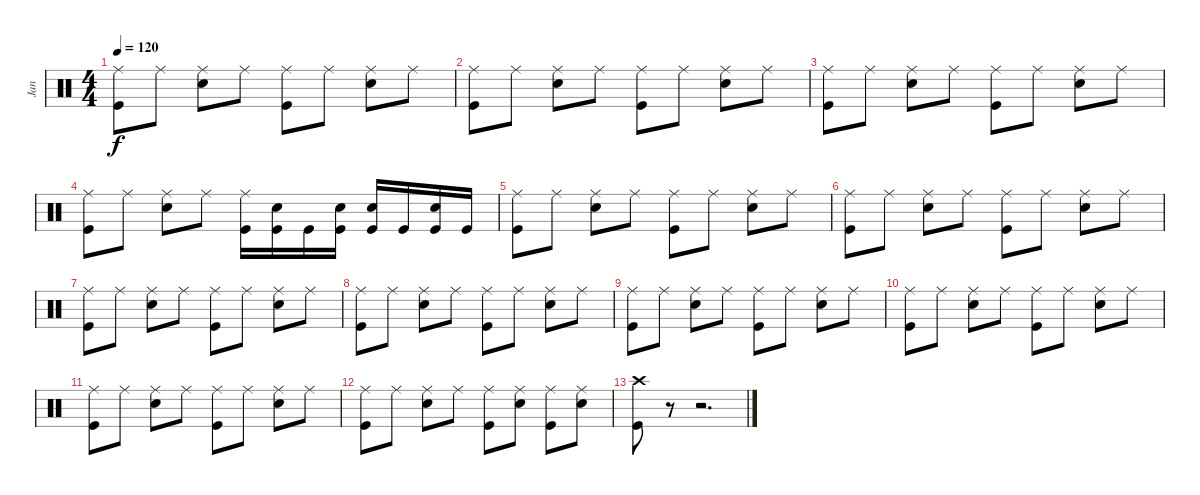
\track ("Jan" "Jan") {instrument percussion}
\staff {score}
\articulation defaults
\ts (4 4)
\tempo 120
\clef neutral
\ks c
("Ride (middle)" "Kick (hit)").8{dy f} "Ride (middle)".8 ("Ride (middle)" "Snare (hit) 2").8 "Ride (middle)".8 ("Ride (middle)" "Kick (hit)").8 "Ride (middle)".8 ("Ride (middle)" "Snare (hit) 2").8 "Ride (middle)".8 |
("Ride (middle)" "Kick (hit)").8 "Ride (middle)".8 ("Ride (middle)" "Snare (hit) 2").8 "Ride (middle)".8 ("Ride (middle)" "Kick (hit)").8 "Ride (middle)".8 ("Ride (middle)" "Snare (hit) 2").8 "Ride (middle)".8 |
("Ride (middle)" "Kick (hit)").8 "Ride (middle)".8 ("Ride (middle)" "Snare (hit) 2").8 "Ride (middle)".8 ("Ride (middle)" "Kick (hit)").8 "Ride (middle)".8 ("Ride (middle)" "Snare (hit) 2").8 "Ride (middle)".8 |
("Ride (middle)" "Kick (hit)").8 "Ride (middle)".8 ("Ride (middle)" "Snare (hit) 2").8 "Ride (middle)".8 ("Ride (middle)" "Kick (hit)").16 ("Snare (hit) 2" "Kick (hit)").16 "Kick (hit)".16 ("Snare (hit) 2" "Kick (hit)").16 ("Snare (hit) 2" "Kick (hit)").16 "Kick (hit)".16 ("Snare (hit) 2" "Kick (hit)").16 "Kick (hit)".16 |
("Ride (middle)" "Kick (hit)").8 "Ride (middle)".8 ("Ride (middle)" "Snare (hit) 2").8 "Ride (middle)".8 ("Ride (middle)" "Kick (hit)").8 "Ride (middle)".8 ("Ride (middle)" "Snare (hit) 2").8 "Ride (middle)".8 |
("Ride (middle)" "Kick (hit)").8 "Ride (middle)".8 ("Ride (middle)" "Snare (hit) 2").8 "Ride (middle)".8 ("Ride (middle)" "Kick (hit)").8 "Ride (middle)".8 ("Ride (middle)" "Snare (hit) 2").8 "Ride (middle)".8 |
("Ride (middle)" "Kick (hit)").8 "Ride (middle)".8 ("Ride (middle)" "Snare (hit) 2").8 "Ride (middle)".8 ("Ride (middle)" "Kick (hit)").8 "Ride (middle)".8 ("Ride (middle)" "Snare (hit) 2").8 "Ride (middle)".8 |
("Ride (middle)" "Kick (hit)").8 "Ride (middle)".8 ("Ride (middle)" "Snare (hit) 2").8 "Ride (middle)".8 ("Ride (middle)" "Kick (hit)").8 "Ride (middle)".8 ("Ride (middle)" "Snare (hit) 2").8 "Ride (middle)".8 |
("Ride (middle)" "Kick (hit)").8 "Ride (middle)".8 ("Ride (middle)" "Snare (hit) 2").8 "Ride (middle)".8 ("Ride (middle)" "Kick (hit)").8 "Ride (middle)".8 ("Ride (middle)" "Snare (hit) 2").8 "Ride (middle)".8 |
("Ride (middle)" "Kick (hit)").8 "Ride (middle)".8 ("Ride (middle)" "Snare (hit) 2").8 "Ride (middle)".8 ("Ride (middle)" "Kick (hit)").8 "Ride (middle)".8 ("Ride (middle)" "Snare (hit) 2").8 "Ride (middle)".8 |
("Ride (middle)" "Kick (hit)").8 "Ride (middle)".8 ("Ride (middle)" "Snare (hit) 2").8 "Ride (middle)".8 ("Ride (middle)" "Kick (hit)").8 "Ride (middle)".8 ("Ride (middle)" "Snare (hit) 2").8 "Ride (middle)".8 |
("Ride (middle)" "Kick (hit)").8 "Ride (middle)".8 ("Ride (middle)" "Snare (hit) 2").8 "Ride (middle)".8 ("Ride (middle)" "Kick (hit)").8 ("Ride (middle)" "Snare (hit) 2").8 ("Ride (middle)" "Kick (hit)").8 ("Ride (middle)" "Snare (hit) 2").8 |
("Crash high (hit)" "Kick (hit)").8 r.8 r.2{d}
